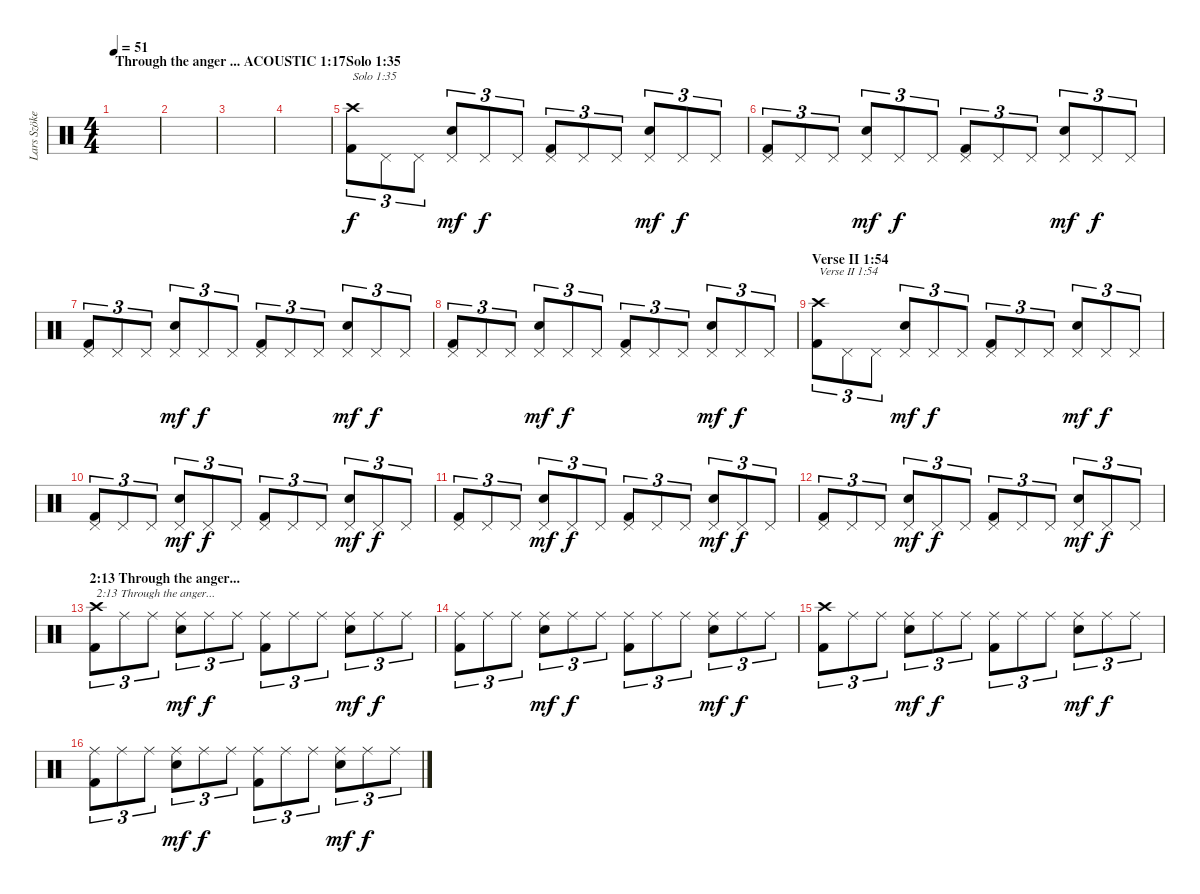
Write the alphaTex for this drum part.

\track ("Lars Szöke (Percussion)" "Lars Szöke") {instrument percussion}
\staff {score}
\articulation defaults
\ts (4 4)
\section ("" "Through the anger ... ACOUSTIC 1:17")
\tempo 51
\clef neutral
\ks c
|
|
|
|
\section ("" "Solo 1:35")
("Kick (hit) 2" "Crash high (hit)").8{tu (3 2) txt "Solo 1:35"} "Pedal Hi-Hat (hit)".8{tu (3 2)} "Pedal Hi-Hat (hit)".8{tu (3 2)} ("Snare (hit) 2" "Pedal Hi-Hat (hit)").8{tu (3 2) dy mf} "Pedal Hi-Hat (hit)".8{tu (3 2) dy f} "Pedal Hi-Hat (hit)".8{tu (3 2)} ("Kick (hit) 2" "Pedal Hi-Hat (hit)").8{tu (3 2)} "Pedal Hi-Hat (hit)".8{tu (3 2)} "Pedal Hi-Hat (hit)".8{tu (3 2)} ("Snare (hit) 2" "Pedal Hi-Hat (hit)").8{tu (3 2) dy mf} "Pedal Hi-Hat (hit)".8{tu (3 2) dy f} "Pedal Hi-Hat (hit)".8{tu (3 2)} |
("Kick (hit) 2" "Pedal Hi-Hat (hit)").8{tu (3 2)} "Pedal Hi-Hat (hit)".8{tu (3 2)} "Pedal Hi-Hat (hit)".8{tu (3 2)} ("Snare (hit) 2" "Pedal Hi-Hat (hit)").8{tu (3 2) dy mf} "Pedal Hi-Hat (hit)".8{tu (3 2) dy f} "Pedal Hi-Hat (hit)".8{tu (3 2)} ("Kick (hit) 2" "Pedal Hi-Hat (hit)").8{tu (3 2)} "Pedal Hi-Hat (hit)".8{tu (3 2)} "Pedal Hi-Hat (hit)".8{tu (3 2)} ("Snare (hit) 2" "Pedal Hi-Hat (hit)").8{tu (3 2) dy mf} "Pedal Hi-Hat (hit)".8{tu (3 2) dy f} "Pedal Hi-Hat (hit)".8{tu (3 2)} |
("Kick (hit) 2" "Pedal Hi-Hat (hit)").8{tu (3 2)} "Pedal Hi-Hat (hit)".8{tu (3 2)} "Pedal Hi-Hat (hit)".8{tu (3 2)} ("Snare (hit) 2" "Pedal Hi-Hat (hit)").8{tu (3 2) dy mf} "Pedal Hi-Hat (hit)".8{tu (3 2) dy f} "Pedal Hi-Hat (hit)".8{tu (3 2)} ("Kick (hit) 2" "Pedal Hi-Hat (hit)").8{tu (3 2)} "Pedal Hi-Hat (hit)".8{tu (3 2)} "Pedal Hi-Hat (hit)".8{tu (3 2)} ("Snare (hit) 2" "Pedal Hi-Hat (hit)").8{tu (3 2) dy mf} "Pedal Hi-Hat (hit)".8{tu (3 2) dy f} "Pedal Hi-Hat (hit)".8{tu (3 2)} |
("Kick (hit) 2" "Pedal Hi-Hat (hit)").8{tu (3 2)} "Pedal Hi-Hat (hit)".8{tu (3 2)} "Pedal Hi-Hat (hit)".8{tu (3 2)} ("Snare (hit) 2" "Pedal Hi-Hat (hit)").8{tu (3 2) dy mf} "Pedal Hi-Hat (hit)".8{tu (3 2) dy f} "Pedal Hi-Hat (hit)".8{tu (3 2)} ("Kick (hit) 2" "Pedal Hi-Hat (hit)").8{tu (3 2)} "Pedal Hi-Hat (hit)".8{tu (3 2)} "Pedal Hi-Hat (hit)".8{tu (3 2)} ("Snare (hit) 2" "Pedal Hi-Hat (hit)").8{tu (3 2) dy mf} "Pedal Hi-Hat (hit)".8{tu (3 2) dy f} "Pedal Hi-Hat (hit)".8{tu (3 2)} |
\section ("" "Verse II 1:54")
("Kick (hit) 2" "Crash high (hit)").8{tu (3 2) txt "Verse II 1:54"} "Pedal Hi-Hat (hit)".8{tu (3 2)} "Pedal Hi-Hat (hit)".8{tu (3 2)} ("Snare (hit) 2" "Pedal Hi-Hat (hit)").8{tu (3 2) dy mf} "Pedal Hi-Hat (hit)".8{tu (3 2) dy f} "Pedal Hi-Hat (hit)".8{tu (3 2)} ("Kick (hit) 2" "Pedal Hi-Hat (hit)").8{tu (3 2)} "Pedal Hi-Hat (hit)".8{tu (3 2)} "Pedal Hi-Hat (hit)".8{tu (3 2)} ("Snare (hit) 2" "Pedal Hi-Hat (hit)").8{tu (3 2) dy mf} "Pedal Hi-Hat (hit)".8{tu (3 2) dy f} "Pedal Hi-Hat (hit)".8{tu (3 2)} |
("Kick (hit) 2" "Pedal Hi-Hat (hit)").8{tu (3 2)} "Pedal Hi-Hat (hit)".8{tu (3 2)} "Pedal Hi-Hat (hit)".8{tu (3 2)} ("Snare (hit) 2" "Pedal Hi-Hat (hit)").8{tu (3 2) dy mf} "Pedal Hi-Hat (hit)".8{tu (3 2) dy f} "Pedal Hi-Hat (hit)".8{tu (3 2)} ("Kick (hit) 2" "Pedal Hi-Hat (hit)").8{tu (3 2)} "Pedal Hi-Hat (hit)".8{tu (3 2)} "Pedal Hi-Hat (hit)".8{tu (3 2)} ("Snare (hit) 2" "Pedal Hi-Hat (hit)").8{tu (3 2) dy mf} "Pedal Hi-Hat (hit)".8{tu (3 2) dy f} "Pedal Hi-Hat (hit)".8{tu (3 2)} |
("Kick (hit) 2" "Pedal Hi-Hat (hit)").8{tu (3 2)} "Pedal Hi-Hat (hit)".8{tu (3 2)} "Pedal Hi-Hat (hit)".8{tu (3 2)} ("Snare (hit) 2" "Pedal Hi-Hat (hit)").8{tu (3 2) dy mf} "Pedal Hi-Hat (hit)".8{tu (3 2) dy f} "Pedal Hi-Hat (hit)".8{tu (3 2)} ("Kick (hit) 2" "Pedal Hi-Hat (hit)").8{tu (3 2)} "Pedal Hi-Hat (hit)".8{tu (3 2)} "Pedal Hi-Hat (hit)".8{tu (3 2)} ("Snare (hit) 2" "Pedal Hi-Hat (hit)").8{tu (3 2) dy mf} "Pedal Hi-Hat (hit)".8{tu (3 2) dy f} "Pedal Hi-Hat (hit)".8{tu (3 2)} |
("Kick (hit) 2" "Pedal Hi-Hat (hit)").8{tu (3 2)} "Pedal Hi-Hat (hit)".8{tu (3 2)} "Pedal Hi-Hat (hit)".8{tu (3 2)} ("Snare (hit) 2" "Pedal Hi-Hat (hit)").8{tu (3 2) dy mf} "Pedal Hi-Hat (hit)".8{tu (3 2) dy f} "Pedal Hi-Hat (hit)".8{tu (3 2)} ("Kick (hit) 2" "Pedal Hi-Hat (hit)").8{tu (3 2)} "Pedal Hi-Hat (hit)".8{tu (3 2)} "Pedal Hi-Hat (hit)".8{tu (3 2)} ("Snare (hit) 2" "Pedal Hi-Hat (hit)").8{tu (3 2) dy mf} "Pedal Hi-Hat (hit)".8{tu (3 2) dy f} "Pedal Hi-Hat (hit)".8{tu (3 2)} |
\section ("" "2:13 Through the anger...")
("Kick (hit) 2" "Crash high (hit)").8{tu (3 2) txt "2:13 Through the anger..."} "Ride (middle)".8{tu (3 2)} "Ride (middle)".8{tu (3 2)} ("Snare (hit) 2" "Ride (middle)").8{tu (3 2) dy mf} "Ride (middle)".8{tu (3 2) dy f} "Ride (middle)".8{tu (3 2)} ("Kick (hit) 2" "Ride (middle)").8{tu (3 2)} "Ride (middle)".8{tu (3 2)} "Ride (middle)".8{tu (3 2)} ("Snare (hit) 2" "Ride (middle)").8{tu (3 2) dy mf} "Ride (middle)".8{tu (3 2) dy f} "Ride (middle)".8{tu (3 2)} |
("Kick (hit) 2" "Ride (middle)").8{tu (3 2)} "Ride (middle)".8{tu (3 2)} "Ride (middle)".8{tu (3 2)} ("Snare (hit) 2" "Ride (middle)").8{tu (3 2) dy mf} "Ride (middle)".8{tu (3 2) dy f} "Ride (middle)".8{tu (3 2)} ("Kick (hit) 2" "Ride (middle)").8{tu (3 2)} "Ride (middle)".8{tu (3 2)} "Ride (middle)".8{tu (3 2)} ("Snare (hit) 2" "Ride (middle)").8{tu (3 2) dy mf} "Ride (middle)".8{tu (3 2) dy f} "Ride (middle)".8{tu (3 2)} |
("Kick (hit) 2" "Crash high (hit)").8{tu (3 2)} "Ride (middle)".8{tu (3 2)} "Ride (middle)".8{tu (3 2)} ("Snare (hit) 2" "Ride (middle)").8{tu (3 2) dy mf} "Ride (middle)".8{tu (3 2) dy f} "Ride (middle)".8{tu (3 2)} ("Kick (hit) 2" "Ride (middle)").8{tu (3 2)} "Ride (middle)".8{tu (3 2)} "Ride (middle)".8{tu (3 2)} ("Snare (hit) 2" "Ride (middle)").8{tu (3 2) dy mf} "Ride (middle)".8{tu (3 2) dy f} "Ride (middle)".8{tu (3 2)} |
("Kick (hit) 2" "Ride (middle)").8{tu (3 2)} "Ride (middle)".8{tu (3 2)} "Ride (middle)".8{tu (3 2)} ("Snare (hit) 2" "Ride (middle)").8{tu (3 2) dy mf} "Ride (middle)".8{tu (3 2) dy f} "Ride (middle)".8{tu (3 2)} ("Kick (hit) 2" "Ride (middle)").8{tu (3 2)} "Ride (middle)".8{tu (3 2)} "Ride (middle)".8{tu (3 2)} ("Snare (hit) 2" "Ride (middle)").8{tu (3 2) dy mf} "Ride (middle)".8{tu (3 2) dy f} "Ride (middle)".8{tu (3 2)}
